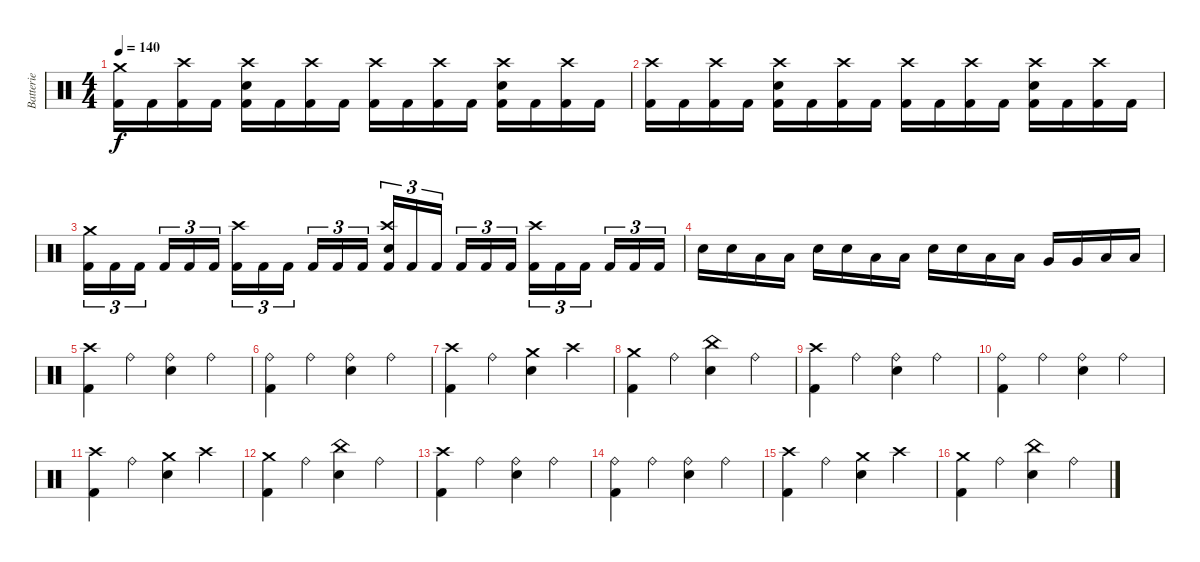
\track ("Batterie" "Batterie") {instrument percussion}
\staff {score}
\articulation defaults
\ts (4 4)
\tempo 140
\clef neutral
\ks c
("Crash medium (hit)" "Kick (hit) 2").16{dy f} "Kick (hit) 2".16 ("Crash high (hit)" "Kick (hit) 2").16 "Kick (hit) 2".16 ("Crash high (hit)" "Electric Snare (hit)" "Kick (hit) 2").16 "Kick (hit) 2".16 ("Crash high (hit)" "Kick (hit) 2").16 "Kick (hit) 2".16 ("Crash high (hit)" "Kick (hit) 2").16 "Kick (hit) 2".16 ("Crash high (hit)" "Kick (hit) 2").16 "Kick (hit) 2".16 ("Crash high (hit)" "Electric Snare (hit)" "Kick (hit) 2").16 "Kick (hit) 2".16 ("Crash high (hit)" "Kick (hit) 2").16 "Kick (hit) 2".16 |
("Crash high (hit)" "Kick (hit) 2").16 "Kick (hit) 2".16 ("Crash high (hit)" "Kick (hit) 2").16 "Kick (hit) 2".16 ("Crash high (hit)" "Electric Snare (hit)" "Kick (hit) 2").16 "Kick (hit) 2".16 ("Crash high (hit)" "Kick (hit) 2").16 "Kick (hit) 2".16 ("Crash high (hit)" "Kick (hit) 2").16 "Kick (hit) 2".16 ("Crash high (hit)" "Kick (hit) 2").16 "Kick (hit) 2".16 ("Crash high (hit)" "Electric Snare (hit)" "Kick (hit) 2").16 "Kick (hit) 2".16 ("Crash high (hit)" "Kick (hit) 2").16 "Kick (hit) 2".16 |
("Crash medium (hit)" "Kick (hit) 2").16{tu (3 2)} "Kick (hit) 2".16{tu (3 2)} "Kick (hit) 2".16{tu (3 2) beam splitsecondary} "Kick (hit) 2".16{tu (3 2)} "Kick (hit) 2".16{tu (3 2)} "Kick (hit) 2".16{tu (3 2)} ("Crash high (hit)" "Kick (hit) 2").16{tu (3 2)} "Kick (hit) 2".16{tu (3 2)} "Kick (hit) 2".16{tu (3 2) beam splitsecondary} "Kick (hit) 2".16{tu (3 2)} "Kick (hit) 2".16{tu (3 2)} "Kick (hit) 2".16{tu (3 2)} ("Crash high (hit)" "Electric Snare (hit)" "Kick (hit) 2").16{tu (3 2)} "Kick (hit) 2".16{tu (3 2)} "Kick (hit) 2".16{tu (3 2) beam splitsecondary} "Kick (hit) 2".16{tu (3 2)} "Kick (hit) 2".16{tu (3 2)} "Kick (hit) 2".16{tu (3 2)} ("Crash high (hit)" "Kick (hit) 2").16{tu (3 2)} "Kick (hit) 2".16{tu (3 2)} "Kick (hit) 2".16{tu (3 2) beam splitsecondary} "Kick (hit) 2".16{tu (3 2)} "Kick (hit) 2".16{tu (3 2)} "Kick (hit) 2".16{tu (3 2)} |
"Electric Snare (hit)".16 "Electric Snare (hit)".16 "Low Tom (hit)".16 "Low Tom (hit)".16 "Electric Snare (hit)".16 "Electric Snare (hit)".16 "Low Tom (hit)".16 "Low Tom (hit)".16 "Electric Snare (hit)".16 "Electric Snare (hit)".16 "Low Tom (hit)".16 "Low Tom (hit)".16 "Very Low Tom (hit)".16 "Very Low Tom (hit)".16 "Low Floor Tom (hit)".16 "Low Floor Tom (hit)".16 |
("Crash high (hit)" "Kick (hit) 2").4 "Ride (bell)".4 ("Ride (bell)" "Electric Snare (hit)").4 "Ride (bell)".4 |
("Ride (bell)" "Kick (hit) 2").4 "Ride (bell)".4 ("Ride (bell)" "Electric Snare (hit)").4 "Ride (bell)".4 |
("Crash high (hit)" "Kick (hit) 2").4 "Ride (bell)".4 ("Crash medium (hit)" "Electric Snare (hit)").4 "Crash high (hit)".4 |
("Crash medium (hit)" "Kick (hit) 2").4 "Ride (bell)".4 ("China (hit)" "Electric Snare (hit)").4 "Ride (bell)".4 |
("Crash high (hit)" "Kick (hit) 2").4 "Ride (bell)".4 ("Ride (bell)" "Electric Snare (hit)").4 "Ride (bell)".4 |
("Ride (bell)" "Kick (hit) 2").4 "Ride (bell)".4 ("Ride (bell)" "Electric Snare (hit)").4 "Ride (bell)".4 |
("Crash high (hit)" "Kick (hit) 2").4 "Ride (bell)".4 ("Crash medium (hit)" "Electric Snare (hit)").4 "Crash high (hit)".4 |
("Crash medium (hit)" "Kick (hit) 2").4 "Ride (bell)".4 ("China (hit)" "Electric Snare (hit)").4 "Ride (bell)".4 |
("Crash high (hit)" "Kick (hit) 2").4 "Ride (bell)".4 ("Ride (bell)" "Electric Snare (hit)").4 "Ride (bell)".4 |
("Ride (bell)" "Kick (hit) 2").4 "Ride (bell)".4 ("Ride (bell)" "Electric Snare (hit)").4 "Ride (bell)".4 |
("Crash high (hit)" "Kick (hit) 2").4 "Ride (bell)".4 ("Crash medium (hit)" "Electric Snare (hit)").4 "Crash high (hit)".4 |
("Crash medium (hit)" "Kick (hit) 2").4 "Ride (bell)".4 ("China (hit)" "Electric Snare (hit)").4 "Ride (bell)".4
